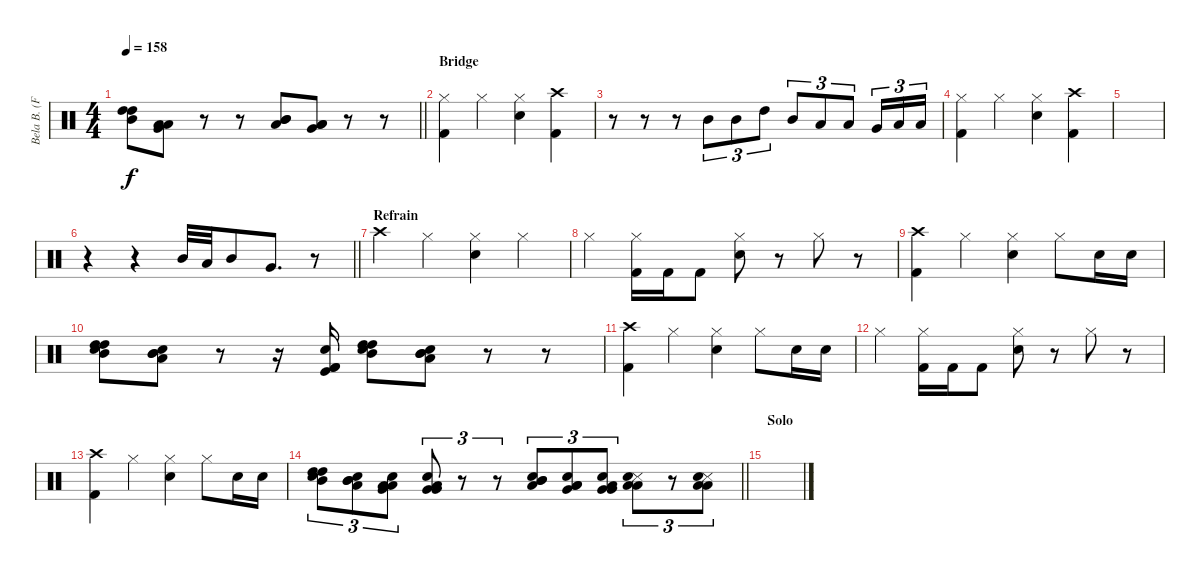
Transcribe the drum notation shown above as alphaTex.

\track ("Bela B. (Felsenheimer)" "Bela B. (F") {instrument percussion}
\staff {score}
\articulation defaults
\ts (4 4)
\tempo 158
\clef neutral
\barLineRight lightlight
\ks c
("High Tom (hit)" "High Tom (hit)" "Mid Tom (hit)").8{dy f} ("Low Tom (hit)" "Low Tom (hit)" "Very Low Tom (hit)").8 r.8 r.8 ("Mid Tom (hit)" "Mid Tom (hit)" "Low Tom (hit)").8 ("Low Tom (hit)" "Low Tom (hit)" "Very Low Tom (hit)").8 r.8 r.8 |
\section ("" "Bridge")
("Kick (hit) 2" "Hi-Hat (closed)").4 "Hi-Hat (closed)".4 ("Electric Snare (hit)" "Hi-Hat (closed)").4 ("Crash high (hit)" "Kick (hit) 2").4 |
r.8 r.8 r.8 "Mid Tom (hit)".8{tu (3 2)} "Mid Tom (hit)".8{tu (3 2)} "High Tom (hit)".8{tu (3 2)} "Mid Tom (hit)".8{tu (3 2)} "Low Tom (hit)".8{tu (3 2)} "Low Tom (hit)".8{tu (3 2)} "Very Low Tom (hit)".16{tu (3 2)} "Low Floor Tom (hit)".16{tu (3 2)} "Low Floor Tom (hit)".16{tu (3 2)} |
("Kick (hit) 2" "Hi-Hat (closed)").4 "Hi-Hat (closed)".4 ("Electric Snare (hit)" "Hi-Hat (closed)").4 ("Crash high (hit)" "Kick (hit) 2").4 |
|
\barLineRight lightlight
r.4 r.4 "Mid Tom (hit)".32 "Low Tom (hit)".32 "Mid Tom (hit)".8 "Very Low Tom (hit)".8{d} r.8 |
\section ("" "Refrain")
"Crash high (hit)".4 "Hi-Hat (closed)".4 ("Hi-Hat (closed)" "Electric Snare (hit)").4 "Hi-Hat (closed)".4 |
"Hi-Hat (closed)".4 ("Kick (hit) 2" "Hi-Hat (closed)").16 "Kick (hit) 2".16 "Kick (hit) 2".8 ("Snare (hit) 2" "Hi-Hat (closed)").8 r.8 "Hi-Hat (closed)".8 r.8 |
("Crash high (hit)" "Kick (hit) 2").4 "Hi-Hat (closed)".4 ("Hi-Hat (closed)" "Electric Snare (hit)").4 "Hi-Hat (closed)".8 "Electric Snare (hit)".16 "Electric Snare (hit)".16 |
("Mid Tom (hit)" "High Tom (hit)" "Electric Snare (hit)" "High Tom (hit)").8 ("Low Tom (hit)" "Mid Tom (hit)" "Electric Snare (hit)" "Mid Tom (hit)").8 r.8 r.16 ("Kick (hit)" "Kick (hit) 2" "Electric Snare (hit)" "Kick (hit) 2").16 ("Mid Tom (hit)" "High Tom (hit)" "Electric Snare (hit)" "High Tom (hit)").8 ("Low Tom (hit)" "Mid Tom (hit)" "Electric Snare (hit)" "Mid Tom (hit)").8 r.8 r.8 |
("Crash high (hit)" "Kick (hit) 2").4 "Hi-Hat (closed)".4 ("Hi-Hat (closed)" "Electric Snare (hit)").4 "Hi-Hat (closed)".8 "Electric Snare (hit)".16 "Electric Snare (hit)".16 |
"Hi-Hat (closed)".4 ("Kick (hit) 2" "Hi-Hat (closed)").16 "Kick (hit) 2".16 "Kick (hit) 2".8 ("Snare (hit) 2" "Hi-Hat (closed)").8 r.8 "Hi-Hat (closed)".8 r.8 |
("Crash high (hit)" "Kick (hit) 2").4 "Hi-Hat (closed)".4 ("Hi-Hat (closed)" "Electric Snare (hit)").4 "Hi-Hat (closed)".8 "Electric Snare (hit)".16 "Electric Snare (hit)".16 |
\barLineRight lightlight
("Mid Tom (hit)" "Electric Snare (hit)" "High Tom (hit)" "High Tom (hit)").8{tu (3 2)} ("Low Tom (hit)" "Electric Snare (hit)" "Mid Tom (hit)" "Mid Tom (hit)").8{tu (3 2)} ("Very Low Tom (hit)" "Electric Snare (hit)" "Low Tom (hit)" "Low Tom (hit)").8{tu (3 2)} ("Low Floor Tom (hit)" "Electric Snare (hit)" "Very Low Tom (hit)" "Very Low Tom (hit)").8{tu (3 2)} r.8{tu (3 2)} r.8{tu (3 2)} ("Low Tom (hit)" "Electric Snare (hit)" "Mid Tom (hit)" "Mid Tom (hit)").8{tu (3 2)} ("Very Low Tom (hit)" "Electric Snare (hit)" "Low Tom (hit)" "Low Tom (hit)").8{tu (3 2)} ("Low Floor Tom (hit)" "Electric Snare (hit)" "Very Low Tom (hit)" "Very Low Tom (hit)").8{tu (3 2)} ("Snare (side stick) 3" "Electric Snare (hit)" "Low Floor Tom (hit)" "Low Floor Tom (hit)").8{tu (3 2)} r.8{tu (3 2)} ("Snare (side stick) 3" "Electric Snare (hit)" "Low Floor Tom (hit)" "Low Floor Tom (hit)").8{tu (3 2)} |
\section ("" "Solo")
